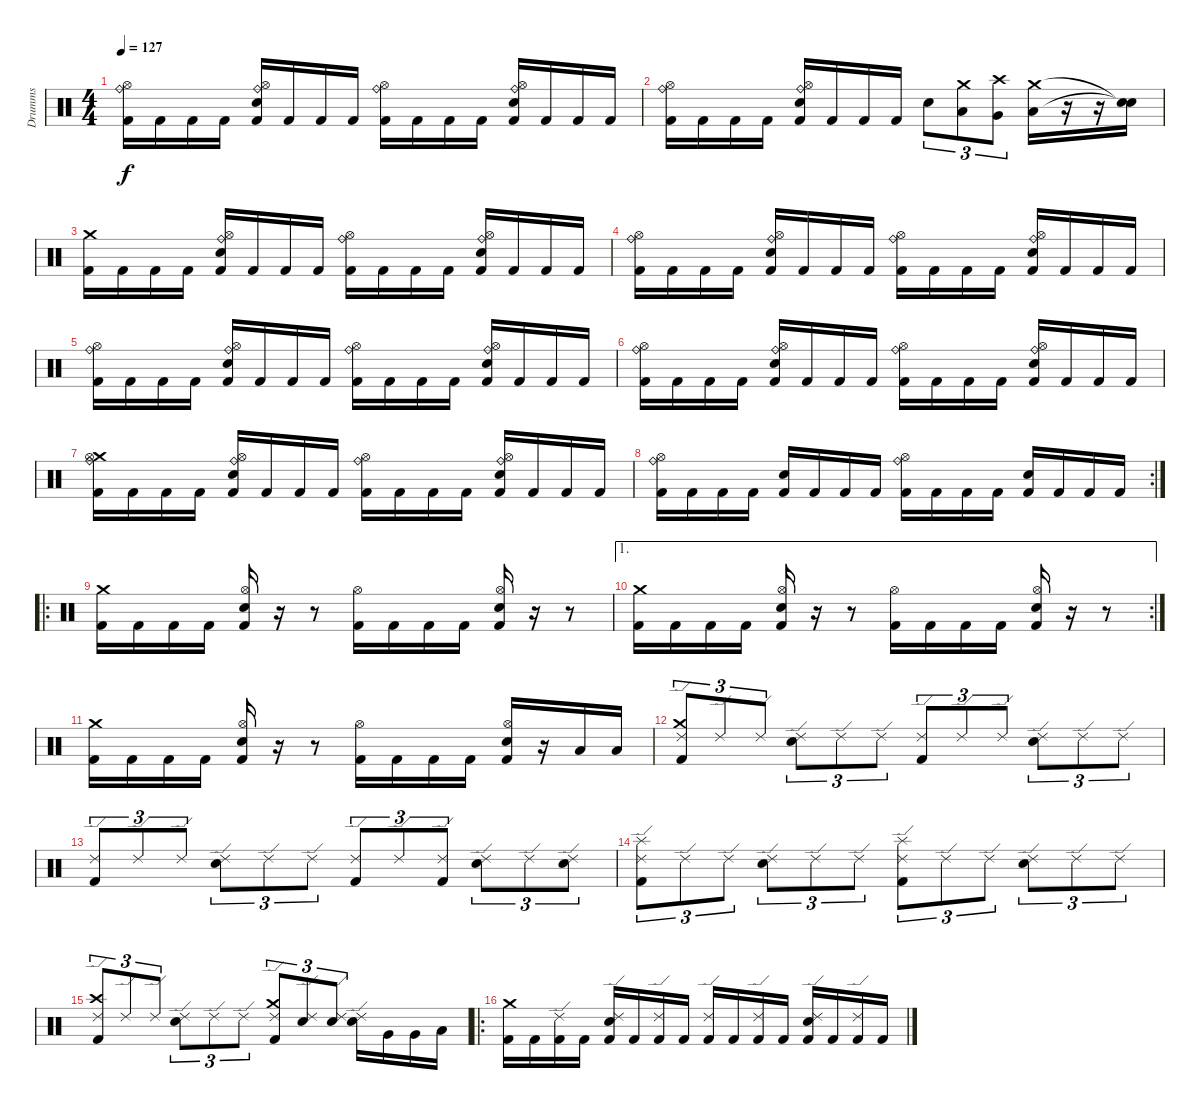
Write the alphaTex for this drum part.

\track ("Drumms" "Drumms") {instrument percussion}
\staff {score}
\articulation defaults
\ts (4 4)
\tempo 127
\clef neutral
\ks c
("Kick (hit) 2" "Hi-Hat (open)" "Ride (bell)").16{dy f} "Kick (hit) 2".16 "Kick (hit) 2".16 "Kick (hit) 2".16 ("Kick (hit) 2" "Snare (hit) 2" "Hi-Hat (open)" "Ride (bell)").16 "Kick (hit) 2".16 "Kick (hit) 2".16 "Kick (hit) 2".16 ("Kick (hit) 2" "Hi-Hat (open)" "Ride (bell)").16 "Kick (hit) 2".16 "Kick (hit) 2".16 "Kick (hit) 2".16 ("Kick (hit) 2" "Snare (hit) 2" "Hi-Hat (open)" "Ride (bell)").16 "Kick (hit) 2".16 "Kick (hit) 2".16 "Kick (hit) 2".16 |
("Kick (hit) 2" "Hi-Hat (open)" "Ride (bell)").16 "Kick (hit) 2".16 "Kick (hit) 2".16 "Kick (hit) 2".16 ("Kick (hit) 2" "Snare (hit) 2" "Hi-Hat (open)" "Ride (bell)").16 "Kick (hit) 2".16 "Kick (hit) 2".16 "Kick (hit) 2".16 "Snare (hit) 2".8{tu (3 2)} ("Low Tom (hit)" "Crash medium (hit)").8{tu (3 2)} ("Very Low Tom (hit)" "Crash high (hit)").8{tu (3 2)} ("Low Floor Tom (hit)" "Crash medium (hit)").16 r.16 r.16 ("Snare (hit)"{t} "Snare (hit)"{t}).16 |
("Kick (hit) 2" "Crash medium (hit)").16 "Kick (hit) 2".16 "Kick (hit) 2".16 "Kick (hit) 2".16 ("Kick (hit) 2" "Snare (hit) 2" "Hi-Hat (open)" "Ride (bell)").16 "Kick (hit) 2".16 "Kick (hit) 2".16 "Kick (hit) 2".16 ("Kick (hit) 2" "Hi-Hat (open)" "Ride (bell)").16 "Kick (hit) 2".16 "Kick (hit) 2".16 "Kick (hit) 2".16 ("Kick (hit) 2" "Snare (hit) 2" "Hi-Hat (open)" "Ride (bell)").16 "Kick (hit) 2".16 "Kick (hit) 2".16 "Kick (hit) 2".16 |
("Kick (hit) 2" "Hi-Hat (open)" "Ride (bell)").16 "Kick (hit) 2".16 "Kick (hit) 2".16 "Kick (hit) 2".16 ("Kick (hit) 2" "Snare (hit) 2" "Hi-Hat (open)" "Ride (bell)").16 "Kick (hit) 2".16 "Kick (hit) 2".16 "Kick (hit) 2".16 ("Kick (hit) 2" "Hi-Hat (open)" "Ride (bell)").16 "Kick (hit) 2".16 "Kick (hit) 2".16 "Kick (hit) 2".16 ("Kick (hit) 2" "Snare (hit) 2" "Hi-Hat (open)" "Ride (bell)").16 "Kick (hit) 2".16 "Kick (hit) 2".16 "Kick (hit) 2".16 |
("Kick (hit) 2" "Hi-Hat (open)" "Ride (bell)").16 "Kick (hit) 2".16 "Kick (hit) 2".16 "Kick (hit) 2".16 ("Kick (hit) 2" "Snare (hit) 2" "Hi-Hat (open)" "Ride (bell)").16 "Kick (hit) 2".16 "Kick (hit) 2".16 "Kick (hit) 2".16 ("Kick (hit) 2" "Hi-Hat (open)" "Ride (bell)").16 "Kick (hit) 2".16 "Kick (hit) 2".16 "Kick (hit) 2".16 ("Kick (hit) 2" "Snare (hit) 2" "Hi-Hat (open)" "Ride (bell)").16 "Kick (hit) 2".16 "Kick (hit) 2".16 "Kick (hit) 2".16 |
("Kick (hit) 2" "Hi-Hat (open)" "Ride (bell)").16 "Kick (hit) 2".16 "Kick (hit) 2".16 "Kick (hit) 2".16 ("Kick (hit) 2" "Snare (hit) 2" "Hi-Hat (open)" "Ride (bell)").16 "Kick (hit) 2".16 "Kick (hit) 2".16 "Kick (hit) 2".16 ("Kick (hit) 2" "Hi-Hat (open)" "Ride (bell)").16 "Kick (hit) 2".16 "Kick (hit) 2".16 "Kick (hit) 2".16 ("Kick (hit) 2" "Snare (hit) 2" "Hi-Hat (open)" "Ride (bell)").16 "Kick (hit) 2".16 "Kick (hit) 2".16 "Kick (hit) 2".16 |
("Kick (hit) 2" "Crash medium (hit)" "Hi-Hat (open)" "Ride (bell)").16 "Kick (hit) 2".16 "Kick (hit) 2".16 "Kick (hit) 2".16 ("Kick (hit) 2" "Snare (hit) 2" "Hi-Hat (open)" "Ride (bell)").16 "Kick (hit) 2".16 "Kick (hit) 2".16 "Kick (hit) 2".16 ("Kick (hit) 2" "Hi-Hat (open)" "Ride (bell)").16 "Kick (hit) 2".16 "Kick (hit) 2".16 "Kick (hit) 2".16 ("Kick (hit) 2" "Snare (hit) 2" "Hi-Hat (open)" "Ride (bell)").16 "Kick (hit) 2".16 "Kick (hit) 2".16 "Kick (hit) 2".16 |
\rc 2
("Kick (hit) 2" "Hi-Hat (open)" "Ride (bell)").16 "Kick (hit) 2".16 "Kick (hit) 2".16 "Kick (hit) 2".16 ("Kick (hit) 2" "Snare (hit) 2").16 "Kick (hit) 2".16 "Kick (hit) 2".16 "Kick (hit) 2".16 ("Kick (hit) 2" "Hi-Hat (open)" "Ride (bell)").16 "Kick (hit) 2".16 "Kick (hit) 2".16 "Kick (hit) 2".16 ("Kick (hit) 2" "Snare (hit) 2").16 "Kick (hit) 2".16 "Kick (hit) 2".16 "Kick (hit) 2".16 |
\ro
("Kick (hit) 2" "Crash medium (hit)").16 "Kick (hit) 2".16 "Kick (hit) 2".16 "Kick (hit) 2".16 ("Kick (hit) 2" "Snare (hit) 2" "Hi-Hat (open)").16 r.16 r.8 ("Kick (hit) 2" "Hi-Hat (open)").16 "Kick (hit) 2".16 "Kick (hit) 2".16 "Kick (hit) 2".16 ("Kick (hit) 2" "Snare (hit) 2" "Hi-Hat (open)").16 r.16 r.8 |
\ae 1
\rc 2
("Kick (hit) 2" "Crash medium (hit)").16 "Kick (hit) 2".16 "Kick (hit) 2".16 "Kick (hit) 2".16 ("Kick (hit) 2" "Snare (hit) 2" "Hi-Hat (open)").16 r.16 r.8 ("Kick (hit) 2" "Hi-Hat (open)").16 "Kick (hit) 2".16 "Kick (hit) 2".16 "Kick (hit) 2".16 ("Kick (hit) 2" "Snare (hit) 2" "Hi-Hat (open)").16 r.16 r.8 |
("Kick (hit) 2" "Crash medium (hit)").16 "Kick (hit) 2".16 "Kick (hit) 2".16 "Kick (hit) 2".16 ("Kick (hit) 2" "Snare (hit) 2" "Hi-Hat (open)").16 r.16 r.8 ("Kick (hit) 2" "Hi-Hat (open)").16 "Kick (hit) 2".16 "Kick (hit) 2".16 "Kick (hit) 2".16 ("Kick (hit) 2" "Snare (hit) 2" "Hi-Hat (open)").16 r.16 "Low Tom (hit)".16 "Low Tom (hit)".16 |
("Kick (hit) 2" "Crash medium (hit)" "Ride (edge) 2").8{tu (3 2)} "Ride (edge) 2".8{tu (3 2)} "Ride (edge) 2".8{tu (3 2)} ("Snare (hit) 2" "Ride (edge) 2").8{tu (3 2)} "Ride (edge) 2".8{tu (3 2)} "Ride (edge) 2".8{tu (3 2)} ("Kick (hit) 2" "Ride (edge) 2").8{tu (3 2)} "Ride (edge) 2".8{tu (3 2)} "Ride (edge) 2".8{tu (3 2)} ("Snare (hit) 2" "Ride (edge) 2").8{tu (3 2)} "Ride (edge) 2".8{tu (3 2)} "Ride (edge) 2".8{tu (3 2)} |
("Kick (hit) 2" "Ride (edge) 2").8{tu (3 2)} "Ride (edge) 2".8{tu (3 2)} "Ride (edge) 2".8{tu (3 2)} ("Snare (hit) 2" "Ride (edge) 2").8{tu (3 2)} "Ride (edge) 2".8{tu (3 2)} "Ride (edge) 2".8{tu (3 2)} ("Kick (hit) 2" "Ride (edge) 2").8{tu (3 2)} "Ride (edge) 2".8{tu (3 2)} ("Kick (hit) 2" "Ride (edge) 2").8{tu (3 2)} ("Snare (hit) 2" "Ride (edge) 2").8{tu (3 2)} "Ride (edge) 2".8{tu (3 2)} ("Snare (hit) 2" "Ride (edge) 2").8{tu (3 2)} |
("Kick (hit) 2" "Splash (hit)" "Ride (edge) 2").8{tu (3 2)} "Ride (edge) 2".8{tu (3 2)} "Ride (edge) 2".8{tu (3 2)} ("Snare (hit) 2" "Ride (edge) 2").8{tu (3 2)} "Ride (edge) 2".8{tu (3 2)} "Ride (edge) 2".8{tu (3 2)} ("Kick (hit) 2" "Splash (hit)" "Ride (edge) 2").8{tu (3 2)} "Ride (edge) 2".8{tu (3 2)} "Ride (edge) 2".8{tu (3 2)} ("Snare (hit) 2" "Ride (edge) 2").8{tu (3 2)} "Ride (edge) 2".8{tu (3 2)} "Ride (edge) 2".8{tu (3 2)} |
("Kick (hit) 2" "Crash high (hit)" "Ride (edge) 2").8{tu (3 2)} "Ride (edge) 2".8{tu (3 2)} "Ride (edge) 2".8{tu (3 2)} ("Snare (hit) 2" "Ride (edge) 2").8{tu (3 2)} "Ride (edge) 2".8{tu (3 2)} "Ride (edge) 2".8{tu (3 2)} ("Kick (hit) 2" "Crash medium (hit)" "Ride (edge) 2").8{tu (3 2)} ("Snare (hit) 2" "Ride (edge) 2").8{tu (3 2)} ("Snare (hit) 2" "Ride (edge) 2").8{tu (3 2)} ("Snare (hit) 2" "Ride (edge) 2").16 "Very Low Tom (hit)".16 "Very Low Tom (hit)".16 "Low Floor Tom (hit)".16 |
\ro
("Kick (hit) 2" "Crash medium (hit)").16 "Kick (hit) 2".16 ("Kick (hit) 2" "Ride (edge) 2").16 "Kick (hit) 2".16 ("Kick (hit) 2" "Snare (hit) 2" "Ride (edge) 2").16 "Kick (hit) 2".16 ("Kick (hit) 2" "Ride (edge) 2").16 "Kick (hit) 2".16 ("Kick (hit) 2" "Ride (edge) 2").16 "Kick (hit) 2".16 ("Kick (hit) 2" "Ride (edge) 2").16 "Kick (hit) 2".16 ("Kick (hit) 2" "Snare (hit) 2" "Ride (edge) 2").16 "Kick (hit) 2".16 ("Kick (hit) 2" "Ride (edge) 2").16 "Kick (hit) 2".16
